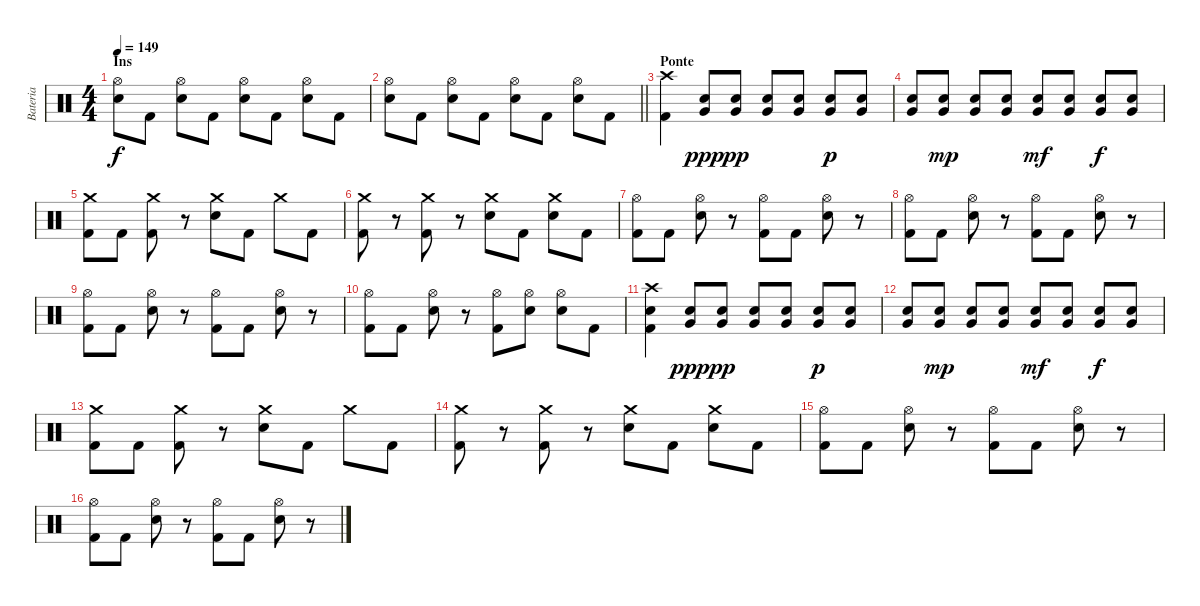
\track ("Bateria" "Bateria") {instrument percussion}
\staff {score}
\articulation defaults
\ts (4 4)
\section ("" "Ins")
\tempo 149
\clef neutral
\ks c
("Hi-Hat (open)" "Electric Snare (hit)").8{dy f} "Kick (hit) 2".8 ("Hi-Hat (open)" "Electric Snare (hit)").8 "Kick (hit) 2".8 ("Hi-Hat (open)" "Electric Snare (hit)").8 "Kick (hit) 2".8 ("Hi-Hat (open)" "Electric Snare (hit)").8 "Kick (hit) 2".8 |
\barLineRight lightlight
("Hi-Hat (open)" "Electric Snare (hit)").8 "Kick (hit) 2".8 ("Hi-Hat (open)" "Electric Snare (hit)").8 "Kick (hit) 2".8 ("Hi-Hat (open)" "Electric Snare (hit)").8 "Kick (hit) 2".8 ("Hi-Hat (open)" "Electric Snare (hit)").8 "Kick (hit) 2".8 |
\section ("" "Ponte")
("Crash high (hit)" "Kick (hit) 2").4 ("Very Low Tom (hit)" "Electric Snare (hit)").8{dy ppp} ("Very Low Tom (hit)" "Electric Snare (hit)").8{dy pp} ("Very Low Tom (hit)" "Electric Snare (hit)").8 ("Very Low Tom (hit)" "Electric Snare (hit)").8 ("Very Low Tom (hit)" "Electric Snare (hit)").8{dy p} ("Very Low Tom (hit)" "Electric Snare (hit)").8 |
("Very Low Tom (hit)" "Electric Snare (hit)").8 ("Very Low Tom (hit)" "Electric Snare (hit)").8{dy mp} ("Very Low Tom (hit)" "Electric Snare (hit)").8 ("Very Low Tom (hit)" "Electric Snare (hit)").8 ("Very Low Tom (hit)" "Electric Snare (hit)").8{dy mf} ("Very Low Tom (hit)" "Electric Snare (hit)").8 ("Very Low Tom (hit)" "Electric Snare (hit)").8{dy f} ("Very Low Tom (hit)" "Electric Snare (hit)").8 |
("Crash medium (hit)" "Kick (hit) 2").8 "Kick (hit) 2".8 ("Crash medium (hit)" "Kick (hit) 2").8 r.8 ("Crash medium (hit)" "Electric Snare (hit)").8 "Kick (hit) 2".8 "Crash medium (hit)".8 "Kick (hit) 2".8 |
("Crash medium (hit)" "Kick (hit) 2").8 r.8 ("Crash medium (hit)" "Kick (hit) 2").8 r.8 ("Crash medium (hit)" "Electric Snare (hit)").8 "Kick (hit) 2".8 ("Crash medium (hit)" "Electric Snare (hit)").8 "Kick (hit) 2".8 |
("Hi-Hat (open)" "Kick (hit) 2").8 "Kick (hit) 2".8 ("Hi-Hat (open)" "Electric Snare (hit)").8 r.8 ("Hi-Hat (open)" "Kick (hit) 2").8 "Kick (hit) 2".8 ("Hi-Hat (open)" "Electric Snare (hit)").8 r.8 |
("Hi-Hat (open)" "Kick (hit) 2").8 "Kick (hit) 2".8 ("Hi-Hat (open)" "Electric Snare (hit)").8 r.8 ("Hi-Hat (open)" "Kick (hit) 2").8 "Kick (hit) 2".8 ("Hi-Hat (open)" "Electric Snare (hit)").8 r.8 |
("Hi-Hat (open)" "Kick (hit) 2").8 "Kick (hit) 2".8 ("Hi-Hat (open)" "Electric Snare (hit)").8 r.8 ("Hi-Hat (open)" "Kick (hit) 2").8 "Kick (hit) 2".8 ("Hi-Hat (open)" "Electric Snare (hit)").8 r.8 |
("Hi-Hat (open)" "Kick (hit) 2").8 "Kick (hit) 2".8 ("Hi-Hat (open)" "Electric Snare (hit)").8 r.8 ("Hi-Hat (open)" "Kick (hit) 2").8 ("Hi-Hat (open)" "Electric Snare (hit)").8 ("Hi-Hat (open)" "Electric Snare (hit)").8 "Kick (hit) 2".8 |
("Crash high (hit)" "Electric Snare (hit)" "Kick (hit) 2").4 ("Very Low Tom (hit)" "Electric Snare (hit)").8{dy ppp} ("Very Low Tom (hit)" "Electric Snare (hit)").8{dy pp} ("Very Low Tom (hit)" "Electric Snare (hit)").8 ("Very Low Tom (hit)" "Electric Snare (hit)").8 ("Very Low Tom (hit)" "Electric Snare (hit)").8{dy p} ("Very Low Tom (hit)" "Electric Snare (hit)").8 |
("Very Low Tom (hit)" "Electric Snare (hit)").8 ("Very Low Tom (hit)" "Electric Snare (hit)").8{dy mp} ("Very Low Tom (hit)" "Electric Snare (hit)").8 ("Very Low Tom (hit)" "Electric Snare (hit)").8 ("Very Low Tom (hit)" "Electric Snare (hit)").8{dy mf} ("Very Low Tom (hit)" "Electric Snare (hit)").8 ("Very Low Tom (hit)" "Electric Snare (hit)").8{dy f} ("Very Low Tom (hit)" "Electric Snare (hit)").8 |
("Crash medium (hit)" "Kick (hit) 2").8 "Kick (hit) 2".8 ("Crash medium (hit)" "Kick (hit) 2").8 r.8 ("Crash medium (hit)" "Electric Snare (hit)").8 "Kick (hit) 2".8 "Crash medium (hit)".8 "Kick (hit) 2".8 |
("Crash medium (hit)" "Kick (hit) 2").8 r.8 ("Crash medium (hit)" "Kick (hit) 2").8 r.8 ("Crash medium (hit)" "Electric Snare (hit)").8 "Kick (hit) 2".8 ("Crash medium (hit)" "Electric Snare (hit)").8 "Kick (hit) 2".8 |
("Hi-Hat (open)" "Kick (hit) 2").8 "Kick (hit) 2".8 ("Hi-Hat (open)" "Electric Snare (hit)").8 r.8 ("Hi-Hat (open)" "Kick (hit) 2").8 "Kick (hit) 2".8 ("Hi-Hat (open)" "Electric Snare (hit)").8 r.8 |
("Hi-Hat (open)" "Kick (hit) 2").8 "Kick (hit) 2".8 ("Hi-Hat (open)" "Electric Snare (hit)").8 r.8 ("Hi-Hat (open)" "Kick (hit) 2").8 "Kick (hit) 2".8 ("Hi-Hat (open)" "Electric Snare (hit)").8 r.8
